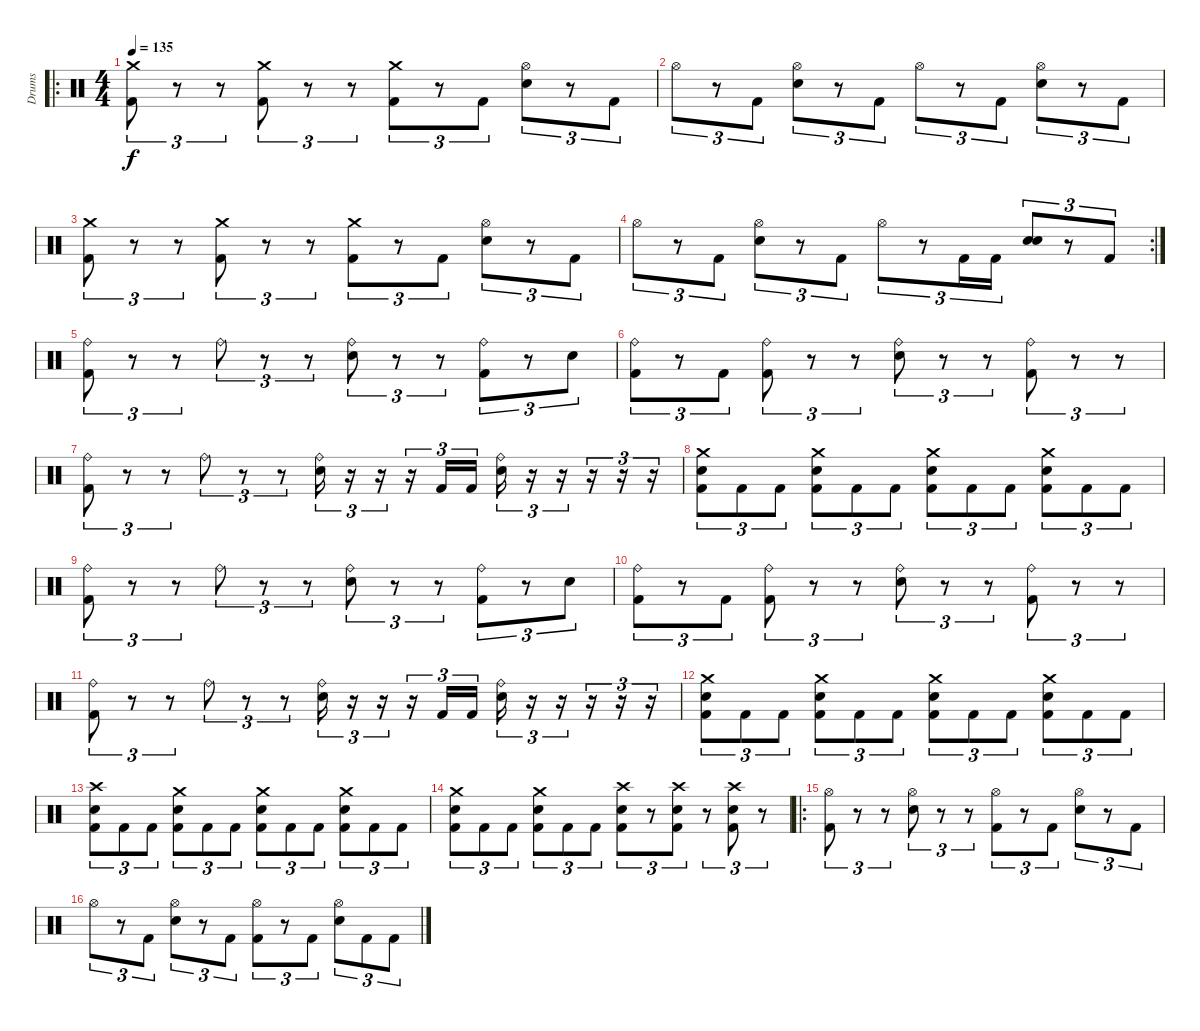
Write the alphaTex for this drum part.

\track ("Drums" "Drums") {instrument percussion}
\staff {score}
\articulation defaults
\ro
\ts (4 4)
\tempo 135
\clef neutral
\ks c
("Crash medium (hit)" "Kick (hit) 2").8{tu (3 2) dy f} r.8{tu (3 2)} r.8{tu (3 2)} ("Crash medium (hit)" "Kick (hit) 2").8{tu (3 2)} r.8{tu (3 2)} r.8{tu (3 2)} ("Crash medium (hit)" "Kick (hit) 2").8{tu (3 2)} r.8{tu (3 2)} "Kick (hit) 2".8{tu (3 2)} ("Hi-Hat (open)" "Electric Snare (hit)").8{tu (3 2)} r.8{tu (3 2)} "Kick (hit) 2".8{tu (3 2)} |
"Hi-Hat (open)".8{tu (3 2)} r.8{tu (3 2)} "Kick (hit) 2".8{tu (3 2)} ("Hi-Hat (open)" "Electric Snare (hit)").8{tu (3 2)} r.8{tu (3 2)} "Kick (hit) 2".8{tu (3 2)} "Hi-Hat (open)".8{tu (3 2)} r.8{tu (3 2)} "Kick (hit) 2".8{tu (3 2)} ("Hi-Hat (open)" "Electric Snare (hit)").8{tu (3 2)} r.8{tu (3 2)} "Kick (hit) 2".8{tu (3 2)} |
("Crash medium (hit)" "Kick (hit) 2").8{tu (3 2)} r.8{tu (3 2)} r.8{tu (3 2)} ("Crash medium (hit)" "Kick (hit) 2").8{tu (3 2)} r.8{tu (3 2)} r.8{tu (3 2)} ("Crash medium (hit)" "Kick (hit) 2").8{tu (3 2)} r.8{tu (3 2)} "Kick (hit) 2".8{tu (3 2)} ("Hi-Hat (open)" "Electric Snare (hit)").8{tu (3 2)} r.8{tu (3 2)} "Kick (hit) 2".8{tu (3 2)} |
\rc 2 "Hi-Hat (open)".8{tu (3 2)}
r.8{tu (3 2)} "Kick (hit) 2".8{tu (3 2)} ("Hi-Hat (open)" "Electric Snare (hit)").8{tu (3 2)} r.8{tu (3 2)} "Kick (hit) 2".8{tu (3 2)} "Hi-Hat (open)".8{tu (3 2)} r.8{tu (3 2)} "Kick (hit) 2".16{tu (3 2)} "Kick (hit) 2".16{tu (3 2)} ("Electric Snare (hit)" "Electric Snare (hit)").8{tu (3 2) bu 480} r.8{tu (3 2)} "Kick (hit) 2".8{tu (3 2)} |
("Ride (bell)" "Kick (hit) 2").8{tu (3 2)} r.8{tu (3 2)} r.8{tu (3 2)} "Ride (bell)".8{tu (3 2)} r.8{tu (3 2)} r.8{tu (3 2)} ("Ride (bell)" "Electric Snare (hit)").8{tu (3 2)} r.8{tu (3 2)} r.8{tu (3 2)} ("Ride (bell)" "Kick (hit) 2").8{tu (3 2)} r.8{tu (3 2)} "Electric Snare (hit)".8{tu (3 2)} |
("Ride (bell)" "Kick (hit) 2").8{tu (3 2)} r.8{tu (3 2)} "Kick (hit) 2".8{tu (3 2)} ("Ride (bell)" "Kick (hit) 2").8{tu (3 2)} r.8{tu (3 2)} r.8{tu (3 2)} ("Ride (bell)" "Electric Snare (hit)").8{tu (3 2)} r.8{tu (3 2)} r.8{tu (3 2)} ("Ride (bell)" "Kick (hit) 2").8{tu (3 2)} r.8{tu (3 2)} r.8{tu (3 2)} |
("Ride (bell)" "Kick (hit) 2").8{tu (3 2)} r.8{tu (3 2)} r.8{tu (3 2)} "Ride (bell)".8{tu (3 2)} r.8{tu (3 2)} r.8{tu (3 2)} ("Ride (bell)" "Electric Snare (hit)").16{tu (3 2)} r.16{tu (3 2)} r.16{tu (3 2)} r.16{tu (3 2)} "Kick (hit) 2".16{tu (3 2)} "Kick (hit) 2".16{tu (3 2)} ("Ride (bell)" "Electric Snare (hit)").16{tu (3 2)} r.16{tu (3 2)} r.16{tu (3 2)} r.16{tu (3 2)} r.16{tu (3 2)} r.16{tu (3 2)} |
("Crash medium (hit)" "Electric Snare (hit)" "Kick (hit) 2").8{tu (3 2)} "Kick (hit) 2".8{tu (3 2)} "Kick (hit) 2".8{tu (3 2)} ("Crash medium (hit)" "Electric Snare (hit)" "Kick (hit) 2").8{tu (3 2)} "Kick (hit) 2".8{tu (3 2)} "Kick (hit) 2".8{tu (3 2)} ("Crash medium (hit)" "Electric Snare (hit)" "Kick (hit) 2").8{tu (3 2)} "Kick (hit) 2".8{tu (3 2)} "Kick (hit) 2".8{tu (3 2)} ("Crash medium (hit)" "Electric Snare (hit)" "Kick (hit) 2").8{tu (3 2)} "Kick (hit) 2".8{tu (3 2)} "Kick (hit) 2".8{tu (3 2)} |
("Ride (bell)" "Kick (hit) 2").8{tu (3 2)} r.8{tu (3 2)} r.8{tu (3 2)} "Ride (bell)".8{tu (3 2)} r.8{tu (3 2)} r.8{tu (3 2)} ("Ride (bell)" "Electric Snare (hit)").8{tu (3 2)} r.8{tu (3 2)} r.8{tu (3 2)} ("Ride (bell)" "Kick (hit) 2").8{tu (3 2)} r.8{tu (3 2)} "Electric Snare (hit)".8{tu (3 2)} |
("Ride (bell)" "Kick (hit) 2").8{tu (3 2)} r.8{tu (3 2)} "Kick (hit) 2".8{tu (3 2)} ("Ride (bell)" "Kick (hit) 2").8{tu (3 2)} r.8{tu (3 2)} r.8{tu (3 2)} ("Ride (bell)" "Electric Snare (hit)").8{tu (3 2)} r.8{tu (3 2)} r.8{tu (3 2)} ("Ride (bell)" "Kick (hit) 2").8{tu (3 2)} r.8{tu (3 2)} r.8{tu (3 2)} |
("Ride (bell)" "Kick (hit) 2").8{tu (3 2)} r.8{tu (3 2)} r.8{tu (3 2)} "Ride (bell)".8{tu (3 2)} r.8{tu (3 2)} r.8{tu (3 2)} ("Ride (bell)" "Electric Snare (hit)").16{tu (3 2)} r.16{tu (3 2)} r.16{tu (3 2)} r.16{tu (3 2)} "Kick (hit) 2".16{tu (3 2)} "Kick (hit) 2".16{tu (3 2)} ("Ride (bell)" "Electric Snare (hit)").16{tu (3 2)} r.16{tu (3 2)} r.16{tu (3 2)} r.16{tu (3 2)} r.16{tu (3 2)} r.16{tu (3 2)} |
("Crash medium (hit)" "Electric Snare (hit)" "Kick (hit) 2").8{tu (3 2)} "Kick (hit) 2".8{tu (3 2)} "Kick (hit) 2".8{tu (3 2)} ("Crash medium (hit)" "Electric Snare (hit)" "Kick (hit) 2").8{tu (3 2)} "Kick (hit) 2".8{tu (3 2)} "Kick (hit) 2".8{tu (3 2)} ("Crash medium (hit)" "Electric Snare (hit)" "Kick (hit) 2").8{tu (3 2)} "Kick (hit) 2".8{tu (3 2)} "Kick (hit) 2".8{tu (3 2)} ("Crash medium (hit)" "Electric Snare (hit)" "Kick (hit) 2").8{tu (3 2)} "Kick (hit) 2".8{tu (3 2)} "Kick (hit) 2".8{tu (3 2)} |
("Crash high (hit)" "Electric Snare (hit)" "Kick (hit) 2").8{tu (3 2)} "Kick (hit) 2".8{tu (3 2)} "Kick (hit) 2".8{tu (3 2)} ("Crash medium (hit)" "Electric Snare (hit)" "Kick (hit) 2").8{tu (3 2)} "Kick (hit) 2".8{tu (3 2)} "Kick (hit) 2".8{tu (3 2)} ("Crash medium (hit)" "Electric Snare (hit)" "Kick (hit) 2").8{tu (3 2)} "Kick (hit) 2".8{tu (3 2)} "Kick (hit) 2".8{tu (3 2)} ("Crash medium (hit)" "Electric Snare (hit)" "Kick (hit) 2").8{tu (3 2)} "Kick (hit) 2".8{tu (3 2)} "Kick (hit) 2".8{tu (3 2)} |
("Crash medium (hit)" "Electric Snare (hit)" "Kick (hit) 2").8{tu (3 2)} "Kick (hit) 2".8{tu (3 2)} "Kick (hit) 2".8{tu (3 2)} ("Crash medium (hit)" "Electric Snare (hit)" "Kick (hit) 2").8{tu (3 2)} "Kick (hit) 2".8{tu (3 2)} "Kick (hit) 2".8{tu (3 2)} ("Crash high (hit)" "Electric Snare (hit)" "Kick (hit) 2").8{tu (3 2)} r.8{tu (3 2)} ("Crash high (hit)" "Electric Snare (hit)" "Kick (hit) 2").8{tu (3 2)} r.8{tu (3 2)} ("Crash high (hit)" "Electric Snare (hit)" "Kick (hit) 2").8{tu (3 2)} r.8{tu (3 2)} |
\ro
("Hi-Hat (open)" "Kick (hit) 2").8{tu (3 2)} r.8{tu (3 2)} r.8{tu (3 2)} ("Hi-Hat (open)" "Electric Snare (hit)").8{tu (3 2)} r.8{tu (3 2)} r.8{tu (3 2)} ("Hi-Hat (open)" "Kick (hit) 2").8{tu (3 2)} r.8{tu (3 2)} "Kick (hit) 2".8{tu (3 2)} ("Hi-Hat (open)" "Electric Snare (hit)").8{tu (3 2)} r.8{tu (3 2)} "Kick (hit) 2".8{tu (3 2)} |
"Hi-Hat (open)".8{tu (3 2)} r.8{tu (3 2)} "Kick (hit) 2".8{tu (3 2)} ("Hi-Hat (open)" "Electric Snare (hit)").8{tu (3 2)} r.8{tu (3 2)} "Kick (hit) 2".8{tu (3 2)} ("Hi-Hat (open)" "Kick (hit) 2").8{tu (3 2)} r.8{tu (3 2)} "Kick (hit) 2".8{tu (3 2)} ("Hi-Hat (open)" "Electric Snare (hit)").8{tu (3 2)} "Kick (hit) 2".8{tu (3 2)} "Kick (hit) 2".8{tu (3 2)}
